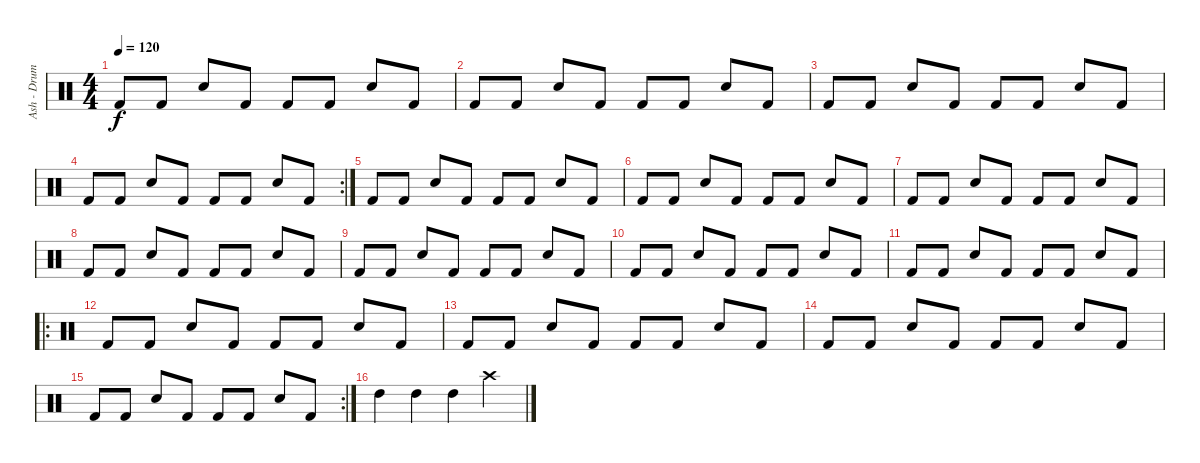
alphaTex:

\track ("Ash - Drums" "Ash - Drum") {instrument percussion}
\staff {score}
\articulation defaults
\ts (4 4)
\tempo 120
\clef neutral
\ks c "Kick (hit) 2".8{dy f} "Kick (hit) 2".8 "Snare (hit) 2".8 "Kick (hit) 2".8 "Kick (hit) 2".8 "Kick (hit) 2".8 "Snare (hit) 2".8 "Kick (hit) 2".8
|
"Kick (hit) 2".8 "Kick (hit) 2".8 "Snare (hit) 2".8 "Kick (hit) 2".8 "Kick (hit) 2".8 "Kick (hit) 2".8 "Snare (hit) 2".8 "Kick (hit) 2".8 |
"Kick (hit) 2".8 "Kick (hit) 2".8 "Snare (hit) 2".8 "Kick (hit) 2".8 "Kick (hit) 2".8 "Kick (hit) 2".8 "Snare (hit) 2".8 "Kick (hit) 2".8 |
\rc 2 "Kick (hit) 2".8 "Kick (hit) 2".8 "Snare (hit) 2".8 "Kick (hit) 2".8 "Kick (hit) 2".8 "Kick (hit) 2".8 "Snare (hit) 2".8 "Kick (hit) 2".8
|
"Kick (hit) 2".8 "Kick (hit) 2".8 "Snare (hit) 2".8 "Kick (hit) 2".8 "Kick (hit) 2".8 "Kick (hit) 2".8 "Snare (hit) 2".8 "Kick (hit) 2".8 |
"Kick (hit) 2".8 "Kick (hit) 2".8 "Snare (hit) 2".8 "Kick (hit) 2".8 "Kick (hit) 2".8 "Kick (hit) 2".8 "Snare (hit) 2".8 "Kick (hit) 2".8 |
"Kick (hit) 2".8 "Kick (hit) 2".8 "Snare (hit) 2".8 "Kick (hit) 2".8 "Kick (hit) 2".8 "Kick (hit) 2".8 "Snare (hit) 2".8 "Kick (hit) 2".8 |
"Kick (hit) 2".8 "Kick (hit) 2".8 "Snare (hit) 2".8 "Kick (hit) 2".8 "Kick (hit) 2".8 "Kick (hit) 2".8 "Snare (hit) 2".8 "Kick (hit) 2".8 |
"Kick (hit) 2".8 "Kick (hit) 2".8 "Snare (hit) 2".8 "Kick (hit) 2".8 "Kick (hit) 2".8 "Kick (hit) 2".8 "Snare (hit) 2".8 "Kick (hit) 2".8 |
"Kick (hit) 2".8 "Kick (hit) 2".8 "Snare (hit) 2".8 "Kick (hit) 2".8 "Kick (hit) 2".8 "Kick (hit) 2".8 "Snare (hit) 2".8 "Kick (hit) 2".8 |
"Kick (hit) 2".8 "Kick (hit) 2".8 "Snare (hit) 2".8 "Kick (hit) 2".8 "Kick (hit) 2".8 "Kick (hit) 2".8 "Snare (hit) 2".8 "Kick (hit) 2".8 |
\ro "Kick (hit) 2".8 "Kick (hit) 2".8 "Snare (hit) 2".8 "Kick (hit) 2".8 "Kick (hit) 2".8 "Kick (hit) 2".8 "Snare (hit) 2".8 "Kick (hit) 2".8
|
"Kick (hit) 2".8 "Kick (hit) 2".8 "Snare (hit) 2".8 "Kick (hit) 2".8 "Kick (hit) 2".8 "Kick (hit) 2".8 "Snare (hit) 2".8 "Kick (hit) 2".8 |
"Kick (hit) 2".8 "Kick (hit) 2".8 "Snare (hit) 2".8 "Kick (hit) 2".8 "Kick (hit) 2".8 "Kick (hit) 2".8 "Snare (hit) 2".8 "Kick (hit) 2".8 |
\rc 2 "Kick (hit) 2".8 "Kick (hit) 2".8 "Snare (hit) 2".8 "Kick (hit) 2".8 "Kick (hit) 2".8 "Kick (hit) 2".8 "Snare (hit) 2".8 "Kick (hit) 2".8
|
"High Tom (hit)".4 "High Tom (hit)".4 "High Tom (hit)".4 "Crash high (hit)".4
